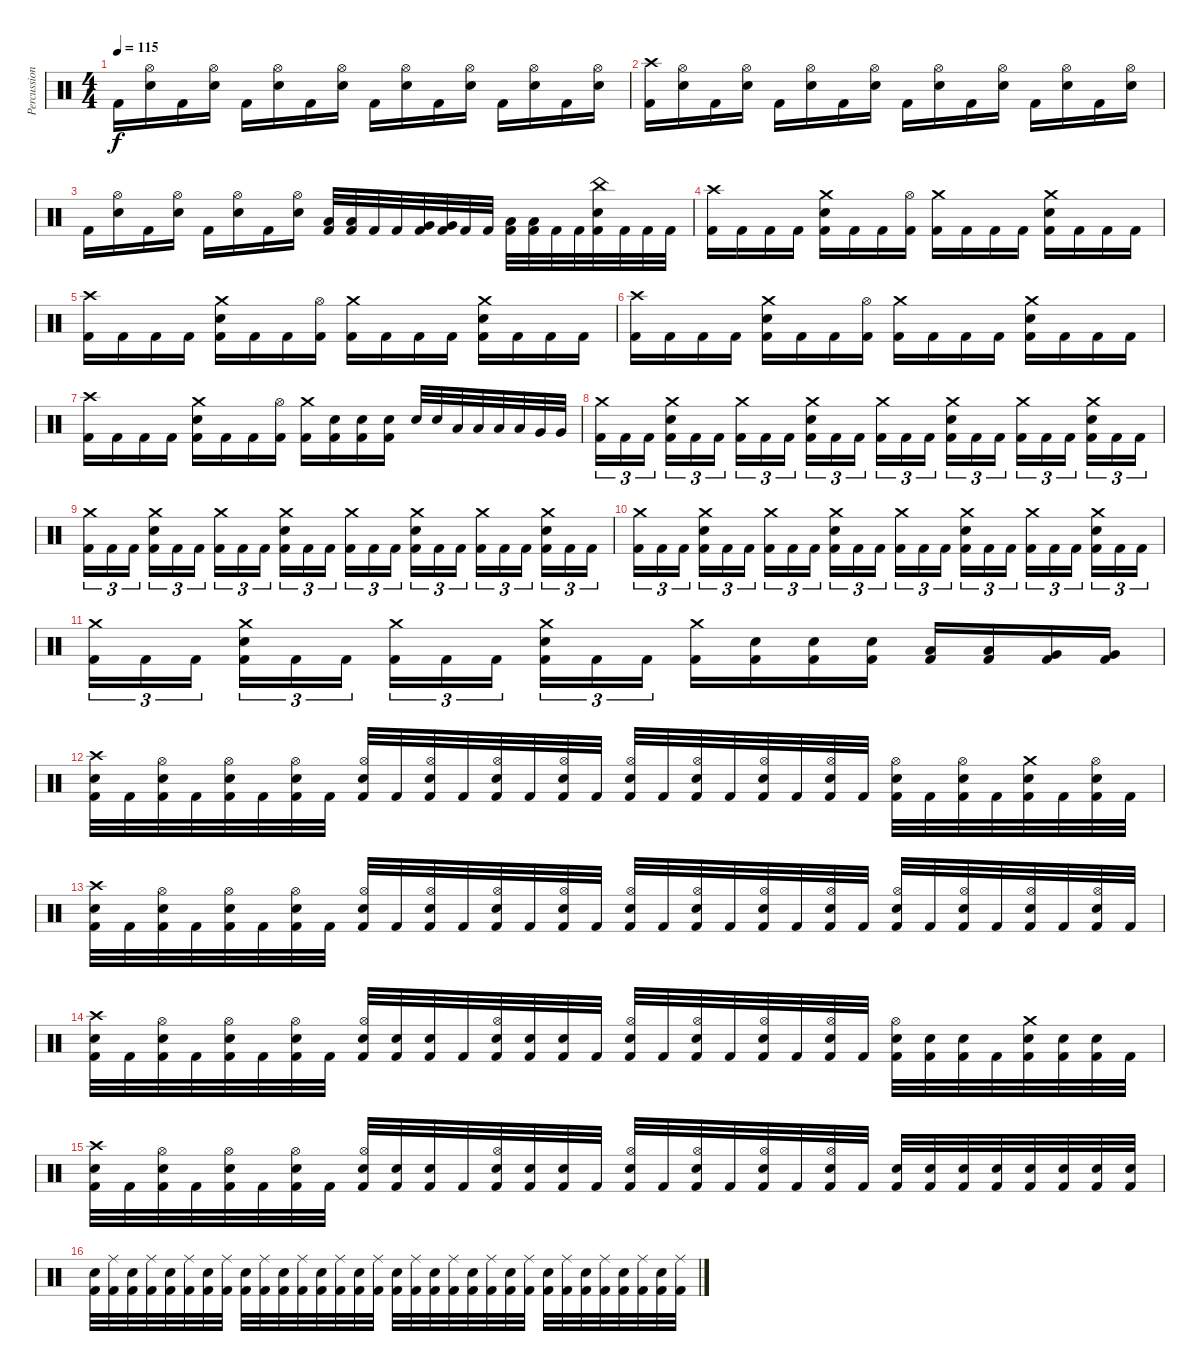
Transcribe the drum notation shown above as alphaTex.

\track ("Percussion" "Percussion") {instrument percussion}
\staff {score}
\articulation defaults
\ts (4 4)
\tempo 115
\clef neutral
\ks c "Kick (hit) 2".16{dy f}
("Hi-Hat (open)" "Electric Snare (hit)").16 "Kick (hit) 2".16 ("Hi-Hat (open)" "Electric Snare (hit)").16 "Kick (hit) 2".16 ("Hi-Hat (open)" "Electric Snare (hit)").16 "Kick (hit) 2".16 ("Hi-Hat (open)" "Electric Snare (hit)").16 "Kick (hit) 2".16 ("Hi-Hat (open)" "Electric Snare (hit)").16 "Kick (hit) 2".16 ("Hi-Hat (open)" "Electric Snare (hit)").16 "Kick (hit) 2".16 ("Hi-Hat (open)" "Electric Snare (hit)").16 "Kick (hit) 2".16 ("Hi-Hat (open)" "Electric Snare (hit)").16 |
("Crash high (hit)" "Kick (hit) 2").16 ("Hi-Hat (open)" "Electric Snare (hit)").16 "Kick (hit) 2".16 ("Hi-Hat (open)" "Electric Snare (hit)").16 "Kick (hit) 2".16 ("Hi-Hat (open)" "Electric Snare (hit)").16 "Kick (hit) 2".16 ("Hi-Hat (open)" "Electric Snare (hit)").16 "Kick (hit) 2".16 ("Hi-Hat (open)" "Electric Snare (hit)").16 "Kick (hit) 2".16 ("Hi-Hat (open)" "Electric Snare (hit)").16 "Kick (hit) 2".16 ("Hi-Hat (open)" "Electric Snare (hit)").16 "Kick (hit) 2".16 ("Hi-Hat (open)" "Electric Snare (hit)").16 |
"Kick (hit) 2".16 ("Hi-Hat (open)" "Electric Snare (hit)").16 "Kick (hit) 2".16 ("Hi-Hat (open)" "Electric Snare (hit)").16 "Kick (hit) 2".16 ("Hi-Hat (open)" "Electric Snare (hit)").16 "Kick (hit) 2".16 ("Hi-Hat (open)" "Electric Snare (hit)").16 ("Low Tom (hit)" "Kick (hit) 2").32 ("Low Tom (hit)" "Kick (hit) 2").32 "Kick (hit) 2".32 "Kick (hit) 2".32 ("Very Low Tom (hit)" "Kick (hit) 2").32 ("Very Low Tom (hit)" "Kick (hit) 2").32 "Kick (hit) 2".32 "Kick (hit) 2".32 ("Low Tom (hit)" "Kick (hit) 2").32 ("Low Tom (hit)" "Kick (hit) 2").32 "Kick (hit) 2".32 "Kick (hit) 2".32 ("China (hit)" "Electric Snare (hit)" "Kick (hit) 2").32 "Kick (hit) 2".32 "Kick (hit) 2".32 "Kick (hit) 2".32 |
("Crash high (hit)" "Kick (hit) 2").16 "Kick (hit) 2".16 "Kick (hit) 2".16 "Kick (hit) 2".16 ("Crash medium (hit)" "Electric Snare (hit)" "Kick (hit) 2").16 "Kick (hit) 2".16 "Kick (hit) 2".16 ("Hi-Hat (open)" "Kick (hit) 2").16 ("Crash medium (hit)" "Kick (hit) 2").16 "Kick (hit) 2".16 "Kick (hit) 2".16 "Kick (hit) 2".16 ("Crash medium (hit)" "Electric Snare (hit)" "Kick (hit) 2").16 "Kick (hit) 2".16 "Kick (hit) 2".16 "Kick (hit) 2".16 |
("Crash high (hit)" "Kick (hit) 2").16 "Kick (hit) 2".16 "Kick (hit) 2".16 "Kick (hit) 2".16 ("Crash medium (hit)" "Electric Snare (hit)" "Kick (hit) 2").16 "Kick (hit) 2".16 "Kick (hit) 2".16 ("Hi-Hat (open)" "Kick (hit) 2").16 ("Crash medium (hit)" "Kick (hit) 2").16 "Kick (hit) 2".16 "Kick (hit) 2".16 "Kick (hit) 2".16 ("Crash medium (hit)" "Electric Snare (hit)" "Kick (hit) 2").16 "Kick (hit) 2".16 "Kick (hit) 2".16 "Kick (hit) 2".16 |
("Crash high (hit)" "Kick (hit) 2").16 "Kick (hit) 2".16 "Kick (hit) 2".16 "Kick (hit) 2".16 ("Crash medium (hit)" "Electric Snare (hit)" "Kick (hit) 2").16 "Kick (hit) 2".16 "Kick (hit) 2".16 ("Hi-Hat (open)" "Kick (hit) 2").16 ("Crash medium (hit)" "Kick (hit) 2").16 "Kick (hit) 2".16 "Kick (hit) 2".16 "Kick (hit) 2".16 ("Crash medium (hit)" "Electric Snare (hit)" "Kick (hit) 2").16 "Kick (hit) 2".16 "Kick (hit) 2".16 "Kick (hit) 2".16 |
("Crash high (hit)" "Kick (hit) 2").16 "Kick (hit) 2".16 "Kick (hit) 2".16 "Kick (hit) 2".16 ("Crash medium (hit)" "Electric Snare (hit)" "Kick (hit) 2").16 "Kick (hit) 2".16 "Kick (hit) 2".16 ("Hi-Hat (open)" "Kick (hit) 2").16 ("Crash medium (hit)" "Kick (hit) 2").16 ("Electric Snare (hit)" "Kick (hit) 2").16 ("Electric Snare (hit)" "Kick (hit) 2").16 ("Electric Snare (hit)" "Kick (hit) 2").16 "Electric Snare (hit)".32 "Electric Snare (hit)".32 "Low Tom (hit)".32 "Low Tom (hit)".32 "Low Tom (hit)".32 "Low Tom (hit)".32 "Very Low Tom (hit)".32 "Very Low Tom (hit)".32 |
("Crash medium (hit)" "Kick (hit) 2").16{tu (3 2)} "Kick (hit) 2".16{tu (3 2)} "Kick (hit) 2".16{tu (3 2)} ("Crash medium (hit)" "Electric Snare (hit)" "Kick (hit) 2").16{tu (3 2)} "Kick (hit) 2".16{tu (3 2)} "Kick (hit) 2".16{tu (3 2)} ("Crash medium (hit)" "Kick (hit) 2").16{tu (3 2)} "Kick (hit) 2".16{tu (3 2)} "Kick (hit) 2".16{tu (3 2)} ("Crash medium (hit)" "Electric Snare (hit)" "Kick (hit) 2").16{tu (3 2)} "Kick (hit) 2".16{tu (3 2)} "Kick (hit) 2".16{tu (3 2)} ("Crash medium (hit)" "Kick (hit) 2").16{tu (3 2)} "Kick (hit) 2".16{tu (3 2)} "Kick (hit) 2".16{tu (3 2)} ("Crash medium (hit)" "Electric Snare (hit)" "Kick (hit) 2").16{tu (3 2)} "Kick (hit) 2".16{tu (3 2)} "Kick (hit) 2".16{tu (3 2)} ("Crash medium (hit)" "Kick (hit) 2").16{tu (3 2)} "Kick (hit) 2".16{tu (3 2)} "Kick (hit) 2".16{tu (3 2)} ("Crash medium (hit)" "Electric Snare (hit)" "Kick (hit) 2").16{tu (3 2)} "Kick (hit) 2".16{tu (3 2)} "Kick (hit) 2".16{tu (3 2)} |
("Crash medium (hit)" "Kick (hit) 2").16{tu (3 2)} "Kick (hit) 2".16{tu (3 2)} "Kick (hit) 2".16{tu (3 2)} ("Crash medium (hit)" "Electric Snare (hit)" "Kick (hit) 2").16{tu (3 2)} "Kick (hit) 2".16{tu (3 2)} "Kick (hit) 2".16{tu (3 2)} ("Crash medium (hit)" "Kick (hit) 2").16{tu (3 2)} "Kick (hit) 2".16{tu (3 2)} "Kick (hit) 2".16{tu (3 2)} ("Crash medium (hit)" "Electric Snare (hit)" "Kick (hit) 2").16{tu (3 2)} "Kick (hit) 2".16{tu (3 2)} "Kick (hit) 2".16{tu (3 2)} ("Crash medium (hit)" "Kick (hit) 2").16{tu (3 2)} "Kick (hit) 2".16{tu (3 2)} "Kick (hit) 2".16{tu (3 2)} ("Crash medium (hit)" "Electric Snare (hit)" "Kick (hit) 2").16{tu (3 2)} "Kick (hit) 2".16{tu (3 2)} "Kick (hit) 2".16{tu (3 2)} ("Crash medium (hit)" "Kick (hit) 2").16{tu (3 2)} "Kick (hit) 2".16{tu (3 2)} "Kick (hit) 2".16{tu (3 2)} ("Crash medium (hit)" "Electric Snare (hit)" "Kick (hit) 2").16{tu (3 2)} "Kick (hit) 2".16{tu (3 2)} "Kick (hit) 2".16{tu (3 2)} |
("Crash medium (hit)" "Kick (hit) 2").16{tu (3 2)} "Kick (hit) 2".16{tu (3 2)} "Kick (hit) 2".16{tu (3 2)} ("Crash medium (hit)" "Electric Snare (hit)" "Kick (hit) 2").16{tu (3 2)} "Kick (hit) 2".16{tu (3 2)} "Kick (hit) 2".16{tu (3 2)} ("Crash medium (hit)" "Kick (hit) 2").16{tu (3 2)} "Kick (hit) 2".16{tu (3 2)} "Kick (hit) 2".16{tu (3 2)} ("Crash medium (hit)" "Electric Snare (hit)" "Kick (hit) 2").16{tu (3 2)} "Kick (hit) 2".16{tu (3 2)} "Kick (hit) 2".16{tu (3 2)} ("Crash medium (hit)" "Kick (hit) 2").16{tu (3 2)} "Kick (hit) 2".16{tu (3 2)} "Kick (hit) 2".16{tu (3 2)} ("Crash medium (hit)" "Electric Snare (hit)" "Kick (hit) 2").16{tu (3 2)} "Kick (hit) 2".16{tu (3 2)} "Kick (hit) 2".16{tu (3 2)} ("Crash medium (hit)" "Kick (hit) 2").16{tu (3 2)} "Kick (hit) 2".16{tu (3 2)} "Kick (hit) 2".16{tu (3 2)} ("Crash medium (hit)" "Electric Snare (hit)" "Kick (hit) 2").16{tu (3 2)} "Kick (hit) 2".16{tu (3 2)} "Kick (hit) 2".16{tu (3 2)} |
("Crash medium (hit)" "Kick (hit) 2").16{tu (3 2)} "Kick (hit) 2".16{tu (3 2)} "Kick (hit) 2".16{tu (3 2)} ("Crash medium (hit)" "Electric Snare (hit)" "Kick (hit) 2").16{tu (3 2)} "Kick (hit) 2".16{tu (3 2)} "Kick (hit) 2".16{tu (3 2)} ("Crash medium (hit)" "Kick (hit) 2").16{tu (3 2)} "Kick (hit) 2".16{tu (3 2)} "Kick (hit) 2".16{tu (3 2)} ("Crash medium (hit)" "Electric Snare (hit)" "Kick (hit) 2").16{tu (3 2)} "Kick (hit) 2".16{tu (3 2)} "Kick (hit) 2".16{tu (3 2)} ("Crash medium (hit)" "Kick (hit) 2").16 ("Electric Snare (hit)" "Kick (hit) 2").16 ("Electric Snare (hit)" "Kick (hit) 2").16 ("Electric Snare (hit)" "Kick (hit) 2").16 ("Low Tom (hit)" "Kick (hit) 2").16 ("Low Tom (hit)" "Kick (hit) 2").16 ("Very Low Tom (hit)" "Kick (hit) 2").16 ("Very Low Tom (hit)" "Kick (hit) 2").16 |
("Crash high (hit)" "Electric Snare (hit)" "Kick (hit) 2").32 "Kick (hit) 2".32 ("Hi-Hat (open)" "Electric Snare (hit)" "Kick (hit) 2").32 "Kick (hit) 2".32 ("Hi-Hat (open)" "Electric Snare (hit)" "Kick (hit) 2").32 "Kick (hit) 2".32 ("Hi-Hat (open)" "Electric Snare (hit)" "Kick (hit) 2").32 "Kick (hit) 2".32 ("Hi-Hat (open)" "Electric Snare (hit)" "Kick (hit) 2").32 "Kick (hit) 2".32 ("Hi-Hat (open)" "Electric Snare (hit)" "Kick (hit) 2").32 "Kick (hit) 2".32 ("Hi-Hat (open)" "Electric Snare (hit)" "Kick (hit) 2").32 "Kick (hit) 2".32 ("Hi-Hat (open)" "Electric Snare (hit)" "Kick (hit) 2").32 "Kick (hit) 2".32 ("Hi-Hat (open)" "Electric Snare (hit)" "Kick (hit) 2").32 "Kick (hit) 2".32 ("Hi-Hat (open)" "Electric Snare (hit)" "Kick (hit) 2").32 "Kick (hit) 2".32 ("Hi-Hat (open)" "Electric Snare (hit)" "Kick (hit) 2").32 "Kick (hit) 2".32 ("Hi-Hat (open)" "Electric Snare (hit)" "Kick (hit) 2").32 "Kick (hit) 2".32 ("Hi-Hat (open)" "Electric Snare (hit)" "Kick (hit) 2").32 "Kick (hit) 2".32 ("Hi-Hat (open)" "Electric Snare (hit)" "Kick (hit) 2").32 "Kick (hit) 2".32 ("Crash medium (hit)" "Electric Snare (hit)" "Kick (hit) 2").32 "Kick (hit) 2".32 ("Hi-Hat (open)" "Electric Snare (hit)" "Kick (hit) 2").32 "Kick (hit) 2".32 |
("Crash high (hit)" "Electric Snare (hit)" "Kick (hit) 2").32 "Kick (hit) 2".32 ("Hi-Hat (open)" "Electric Snare (hit)" "Kick (hit) 2").32 "Kick (hit) 2".32 ("Hi-Hat (open)" "Electric Snare (hit)" "Kick (hit) 2").32 "Kick (hit) 2".32 ("Hi-Hat (open)" "Electric Snare (hit)" "Kick (hit) 2").32 "Kick (hit) 2".32 ("Hi-Hat (open)" "Electric Snare (hit)" "Kick (hit) 2").32 "Kick (hit) 2".32 ("Hi-Hat (open)" "Electric Snare (hit)" "Kick (hit) 2").32 "Kick (hit) 2".32 ("Hi-Hat (open)" "Electric Snare (hit)" "Kick (hit) 2").32 "Kick (hit) 2".32 ("Hi-Hat (open)" "Electric Snare (hit)" "Kick (hit) 2").32 "Kick (hit) 2".32 ("Hi-Hat (open)" "Electric Snare (hit)" "Kick (hit) 2").32 "Kick (hit) 2".32 ("Hi-Hat (open)" "Electric Snare (hit)" "Kick (hit) 2").32 "Kick (hit) 2".32 ("Hi-Hat (open)" "Electric Snare (hit)" "Kick (hit) 2").32 "Kick (hit) 2".32 ("Hi-Hat (open)" "Electric Snare (hit)" "Kick (hit) 2").32 "Kick (hit) 2".32 ("Hi-Hat (open)" "Electric Snare (hit)" "Kick (hit) 2").32 "Kick (hit) 2".32 ("Hi-Hat (open)" "Electric Snare (hit)" "Kick (hit) 2").32 "Kick (hit) 2".32 ("Hi-Hat (open)" "Electric Snare (hit)" "Kick (hit) 2").32 "Kick (hit) 2".32 ("Hi-Hat (open)" "Electric Snare (hit)" "Kick (hit) 2").32 "Kick (hit) 2".32 |
("Crash high (hit)" "Electric Snare (hit)" "Kick (hit) 2").32 "Kick (hit) 2".32 ("Hi-Hat (open)" "Electric Snare (hit)" "Kick (hit) 2").32 "Kick (hit) 2".32 ("Hi-Hat (open)" "Electric Snare (hit)" "Kick (hit) 2").32 "Kick (hit) 2".32 ("Hi-Hat (open)" "Electric Snare (hit)" "Kick (hit) 2").32 "Kick (hit) 2".32 ("Hi-Hat (open)" "Electric Snare (hit)" "Kick (hit) 2").32 ("Electric Snare (hit)" "Kick (hit) 2").32 ("Electric Snare (hit)" "Kick (hit) 2").32 "Kick (hit) 2".32 ("Hi-Hat (open)" "Electric Snare (hit)" "Kick (hit) 2").32 ("Electric Snare (hit)" "Kick (hit) 2").32 ("Electric Snare (hit)" "Kick (hit) 2").32 "Kick (hit) 2".32 ("Hi-Hat (open)" "Electric Snare (hit)" "Kick (hit) 2").32 "Kick (hit) 2".32 ("Hi-Hat (open)" "Electric Snare (hit)" "Kick (hit) 2").32 "Kick (hit) 2".32 ("Hi-Hat (open)" "Electric Snare (hit)" "Kick (hit) 2").32 "Kick (hit) 2".32 ("Hi-Hat (open)" "Electric Snare (hit)" "Kick (hit) 2").32 "Kick (hit) 2".32 ("Hi-Hat (open)" "Electric Snare (hit)" "Kick (hit) 2").32 ("Electric Snare (hit)" "Kick (hit) 2").32 ("Electric Snare (hit)" "Kick (hit) 2").32 "Kick (hit) 2".32 ("Crash medium (hit)" "Electric Snare (hit)" "Kick (hit) 2").32 ("Electric Snare (hit)" "Kick (hit) 2").32 ("Electric Snare (hit)" "Kick (hit) 2").32 "Kick (hit) 2".32 |
("Crash high (hit)" "Electric Snare (hit)" "Kick (hit) 2").32 "Kick (hit) 2".32 ("Hi-Hat (open)" "Electric Snare (hit)" "Kick (hit) 2").32 "Kick (hit) 2".32 ("Hi-Hat (open)" "Electric Snare (hit)" "Kick (hit) 2").32 "Kick (hit) 2".32 ("Hi-Hat (open)" "Electric Snare (hit)" "Kick (hit) 2").32 "Kick (hit) 2".32 ("Hi-Hat (open)" "Electric Snare (hit)" "Kick (hit) 2").32 ("Electric Snare (hit)" "Kick (hit) 2").32 ("Electric Snare (hit)" "Kick (hit) 2").32 "Kick (hit) 2".32 ("Hi-Hat (open)" "Electric Snare (hit)" "Kick (hit) 2").32 ("Electric Snare (hit)" "Kick (hit) 2").32 ("Electric Snare (hit)" "Kick (hit) 2").32 "Kick (hit) 2".32 ("Hi-Hat (open)" "Electric Snare (hit)" "Kick (hit) 2").32 "Kick (hit) 2".32 ("Hi-Hat (open)" "Electric Snare (hit)" "Kick (hit) 2").32 "Kick (hit) 2".32 ("Hi-Hat (open)" "Electric Snare (hit)" "Kick (hit) 2").32 "Kick (hit) 2".32 ("Hi-Hat (open)" "Electric Snare (hit)" "Kick (hit) 2").32 "Kick (hit) 2".32 ("Electric Snare (hit)" "Kick (hit) 2").32 ("Electric Snare (hit)" "Kick (hit) 2").32 ("Electric Snare (hit)" "Kick (hit) 2").32 ("Electric Snare (hit)" "Kick (hit) 2").32 ("Electric Snare (hit)" "Kick (hit) 2").32 ("Electric Snare (hit)" "Kick (hit) 2").32 ("Electric Snare (hit)" "Kick (hit) 2").32 ("Electric Snare (hit)" "Kick (hit) 2").32 |
("Electric Snare (hit)" "Kick (hit) 2").32 ("Ride (middle)" "Kick (hit) 2").32 ("Electric Snare (hit)" "Kick (hit) 2").32 ("Ride (middle)" "Kick (hit) 2").32 ("Electric Snare (hit)" "Kick (hit) 2").32 ("Ride (middle)" "Kick (hit) 2").32 ("Electric Snare (hit)" "Kick (hit) 2").32 ("Ride (middle)" "Kick (hit) 2").32 ("Electric Snare (hit)" "Kick (hit) 2").32 ("Ride (middle)" "Kick (hit) 2").32 ("Electric Snare (hit)" "Kick (hit) 2").32 ("Ride (middle)" "Kick (hit) 2").32 ("Electric Snare (hit)" "Kick (hit) 2").32 ("Ride (middle)" "Kick (hit) 2").32 ("Electric Snare (hit)" "Kick (hit) 2").32 ("Ride (middle)" "Kick (hit) 2").32 ("Electric Snare (hit)" "Kick (hit) 2").32 ("Ride (middle)" "Kick (hit) 2").32 ("Electric Snare (hit)" "Kick (hit) 2").32 ("Ride (middle)" "Kick (hit) 2").32 ("Electric Snare (hit)" "Kick (hit) 2").32 ("Ride (middle)" "Kick (hit) 2").32 ("Electric Snare (hit)" "Kick (hit) 2").32 ("Ride (middle)" "Kick (hit) 2").32 ("Electric Snare (hit)" "Kick (hit) 2").32 ("Ride (middle)" "Kick (hit) 2").32 ("Electric Snare (hit)" "Kick (hit) 2").32 ("Ride (middle)" "Kick (hit) 2").32 ("Electric Snare (hit)" "Kick (hit) 2").32 ("Ride (middle)" "Kick (hit) 2").32 ("Electric Snare (hit)" "Kick (hit) 2").32 ("Ride (middle)" "Kick (hit) 2").32
